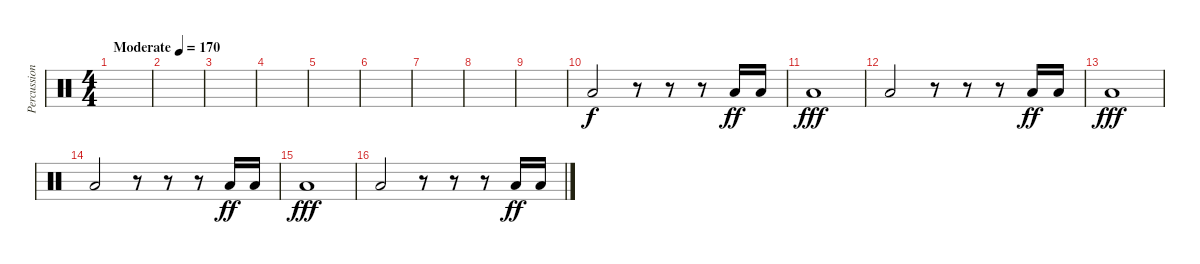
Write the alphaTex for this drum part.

\track ("Percussions" "Percussion") {instrument percussion}
\staff {score}
\articulation defaults
\ts (4 4)
\tempo (170 "Moderate")
\clef neutral
\ks c
|
|
|
|
|
|
|
|
|
"Low Floor Tom (hit)".2 r.8 r.8 r.8 "Low Floor Tom (hit)".16{dy ff} "Low Floor Tom (hit)".16 |
"Low Floor Tom (hit)".1{dy fff} |
"Low Floor Tom (hit)".2 r.8 r.8 r.8 "Low Floor Tom (hit)".16{dy ff} "Low Floor Tom (hit)".16 |
"Low Floor Tom (hit)".1{dy fff} |
"Low Floor Tom (hit)".2 r.8 r.8 r.8 "Low Floor Tom (hit)".16{dy ff} "Low Floor Tom (hit)".16 |
"Low Floor Tom (hit)".1{dy fff} |
"Low Floor Tom (hit)".2 r.8 r.8 r.8 "Low Floor Tom (hit)".16{dy ff} "Low Floor Tom (hit)".16
